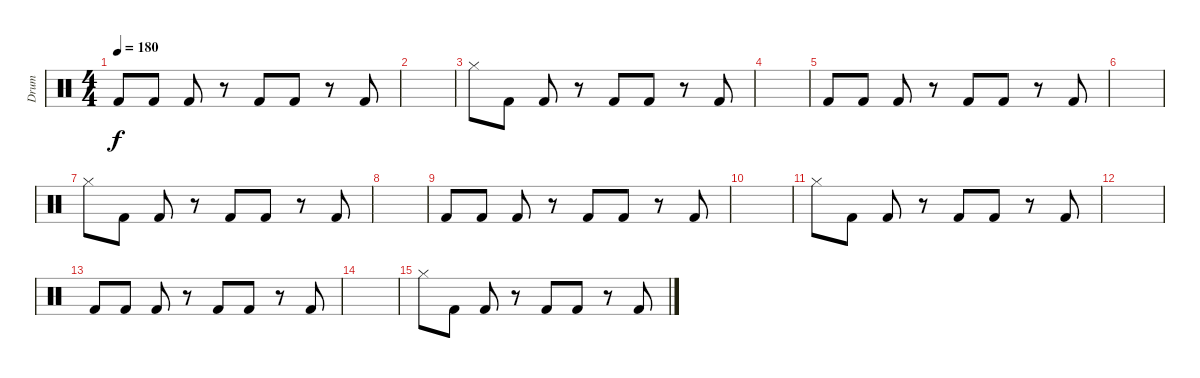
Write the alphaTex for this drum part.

\track ("Drum" "Drum") {instrument percussion}
\staff {score}
\articulation defaults
\ts (4 4)
\tempo 180
\clef neutral
\ks c "Kick (hit) 2".8{dy f} "Kick (hit) 2".8 "Kick (hit) 2".8
r.8 "Kick (hit) 2".8 "Kick (hit) 2".8 r.8 "Kick (hit) 2".8 |
|
"Hi-Hat (closed)".8 "Kick (hit) 2".8 "Kick (hit) 2".8 r.8 "Kick (hit) 2".8 "Kick (hit) 2".8 r.8 "Kick (hit) 2".8 |
|
"Kick (hit) 2".8 "Kick (hit) 2".8 "Kick (hit) 2".8 r.8 "Kick (hit) 2".8 "Kick (hit) 2".8 r.8 "Kick (hit) 2".8 |
|
"Hi-Hat (closed)".8 "Kick (hit) 2".8 "Kick (hit) 2".8 r.8 "Kick (hit) 2".8 "Kick (hit) 2".8 r.8 "Kick (hit) 2".8 |
|
"Kick (hit) 2".8 "Kick (hit) 2".8 "Kick (hit) 2".8 r.8 "Kick (hit) 2".8 "Kick (hit) 2".8 r.8 "Kick (hit) 2".8 |
|
"Hi-Hat (closed)".8 "Kick (hit) 2".8 "Kick (hit) 2".8 r.8 "Kick (hit) 2".8 "Kick (hit) 2".8 r.8 "Kick (hit) 2".8 |
|
"Kick (hit) 2".8 "Kick (hit) 2".8 "Kick (hit) 2".8 r.8 "Kick (hit) 2".8 "Kick (hit) 2".8 r.8 "Kick (hit) 2".8 |
|
"Hi-Hat (closed)".8 "Kick (hit) 2".8 "Kick (hit) 2".8 r.8 "Kick (hit) 2".8 "Kick (hit) 2".8 r.8 "Kick (hit) 2".8
